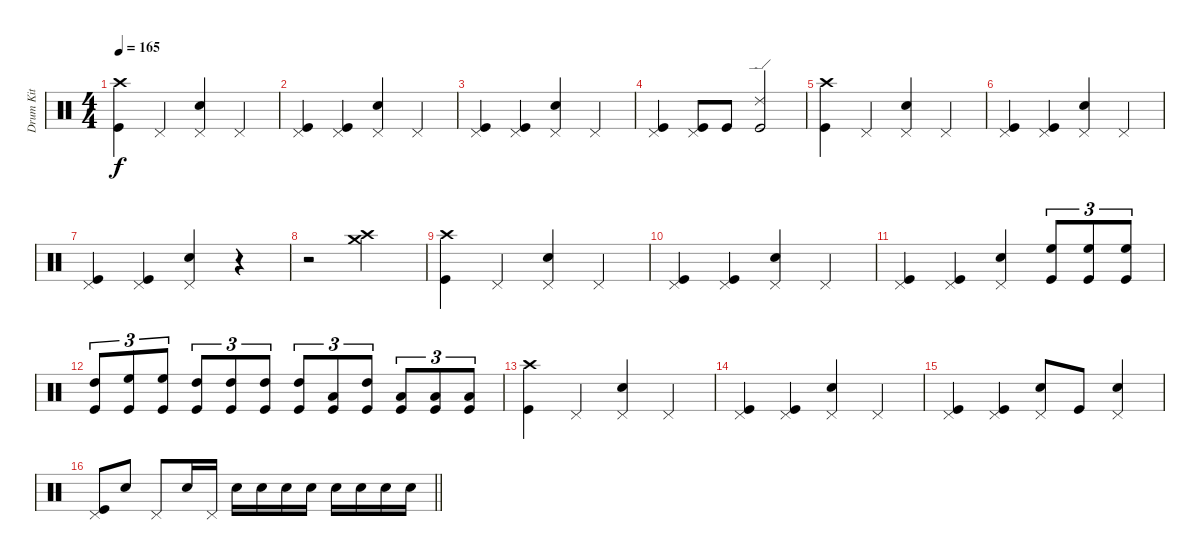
\track ("Drum Kit" "Drum Kit") {instrument percussion}
\staff {score}
\articulation defaults
\ts (4 4)
\tempo 165
\clef neutral
\ks c
("Crash high (hit)" "Kick (hit)").4{dy f} "Pedal Hi-Hat (hit)".4 ("Pedal Hi-Hat (hit)" "Snare (hit) 2").4 "Pedal Hi-Hat (hit)".4 |
("Pedal Hi-Hat (hit)" "Kick (hit)").4 ("Pedal Hi-Hat (hit)" "Kick (hit)").4 ("Pedal Hi-Hat (hit)" "Snare (hit) 2").4 "Pedal Hi-Hat (hit)".4 |
("Pedal Hi-Hat (hit)" "Kick (hit)").4 ("Pedal Hi-Hat (hit)" "Kick (hit)").4 ("Pedal Hi-Hat (hit)" "Snare (hit) 2").4 "Pedal Hi-Hat (hit)".4 |
("Pedal Hi-Hat (hit)" "Kick (hit)").4 ("Pedal Hi-Hat (hit)" "Kick (hit)").8 "Kick (hit)".8 ("Ride (edge) 2" "Kick (hit)").2 |
("Crash high (hit)" "Kick (hit)").4 "Pedal Hi-Hat (hit)".4 ("Pedal Hi-Hat (hit)" "Snare (hit) 2").4 "Pedal Hi-Hat (hit)".4 |
("Pedal Hi-Hat (hit)" "Kick (hit)").4 ("Pedal Hi-Hat (hit)" "Kick (hit)").4 ("Pedal Hi-Hat (hit)" "Snare (hit) 2").4 "Pedal Hi-Hat (hit)".4 |
("Pedal Hi-Hat (hit)" "Kick (hit)").4 ("Pedal Hi-Hat (hit)" "Kick (hit)").4 ("Pedal Hi-Hat (hit)" "Snare (hit) 2").4 r.4 |
r.2 ("Crash high (hit)" "Crash medium (hit)").2 |
("Crash high (hit)" "Kick (hit)").4 "Pedal Hi-Hat (hit)".4 ("Pedal Hi-Hat (hit)" "Snare (hit) 2").4 "Pedal Hi-Hat (hit)".4 |
("Pedal Hi-Hat (hit)" "Kick (hit)").4 ("Pedal Hi-Hat (hit)" "Kick (hit)").4 ("Pedal Hi-Hat (hit)" "Snare (hit) 2").4 "Pedal Hi-Hat (hit)".4 |
("Pedal Hi-Hat (hit)" "Kick (hit)").4 ("Pedal Hi-Hat (hit)" "Kick (hit)").4 ("Pedal Hi-Hat (hit)" "Snare (hit) 2").4 ("High Floor Tom (hit)" "Kick (hit)").8{tu (3 2)} ("High Floor Tom (hit)" "Kick (hit)").8{tu (3 2)} ("High Floor Tom (hit)" "Kick (hit)").8{tu (3 2)} |
("High Tom (hit)" "Kick (hit)").8{tu (3 2)} ("High Floor Tom (hit)" "Kick (hit)").8{tu (3 2)} ("High Floor Tom (hit)" "Kick (hit)").8{tu (3 2)} ("High Tom (hit)" "Kick (hit)").8{tu (3 2)} ("High Tom (hit)" "Kick (hit)").8{tu (3 2)} ("High Tom (hit)" "Kick (hit)").8{tu (3 2)} ("High Tom (hit)" "Kick (hit)").8{tu (3 2)} ("Low Tom (hit)" "Kick (hit)").8{tu (3 2)} ("High Tom (hit)" "Kick (hit)").8{tu (3 2)} ("Low Tom (hit)" "Kick (hit)").8{tu (3 2)} ("Low Tom (hit)" "Kick (hit)").8{tu (3 2)} ("Low Tom (hit)" "Kick (hit)").8{tu (3 2)} |
("Crash high (hit)" "Kick (hit)").4 "Pedal Hi-Hat (hit)".4 ("Pedal Hi-Hat (hit)" "Snare (hit) 2").4 "Pedal Hi-Hat (hit)".4 |
("Pedal Hi-Hat (hit)" "Kick (hit)").4 ("Pedal Hi-Hat (hit)" "Kick (hit)").4 ("Pedal Hi-Hat (hit)" "Snare (hit) 2").4 "Pedal Hi-Hat (hit)".4 |
("Pedal Hi-Hat (hit)" "Kick (hit)").4 ("Pedal Hi-Hat (hit)" "Kick (hit)").4 ("Pedal Hi-Hat (hit)" "Snare (hit) 2").8 "Kick (hit)".8 ("Pedal Hi-Hat (hit)" "Snare (hit) 2").4 |
\barLineRight lightlight
("Pedal Hi-Hat (hit)" "Kick (hit)").8 "Snare (hit) 2".8 "Pedal Hi-Hat (hit)".8 "Snare (hit) 2".16 "Pedal Hi-Hat (hit)".16 "Snare (hit) 2".16 "Snare (hit) 2".16 "Snare (hit) 2".16 "Snare (hit) 2".16 "Snare (hit) 2".16 "Snare (hit) 2".16 "Snare (hit) 2".16 "Snare (hit) 2".16
